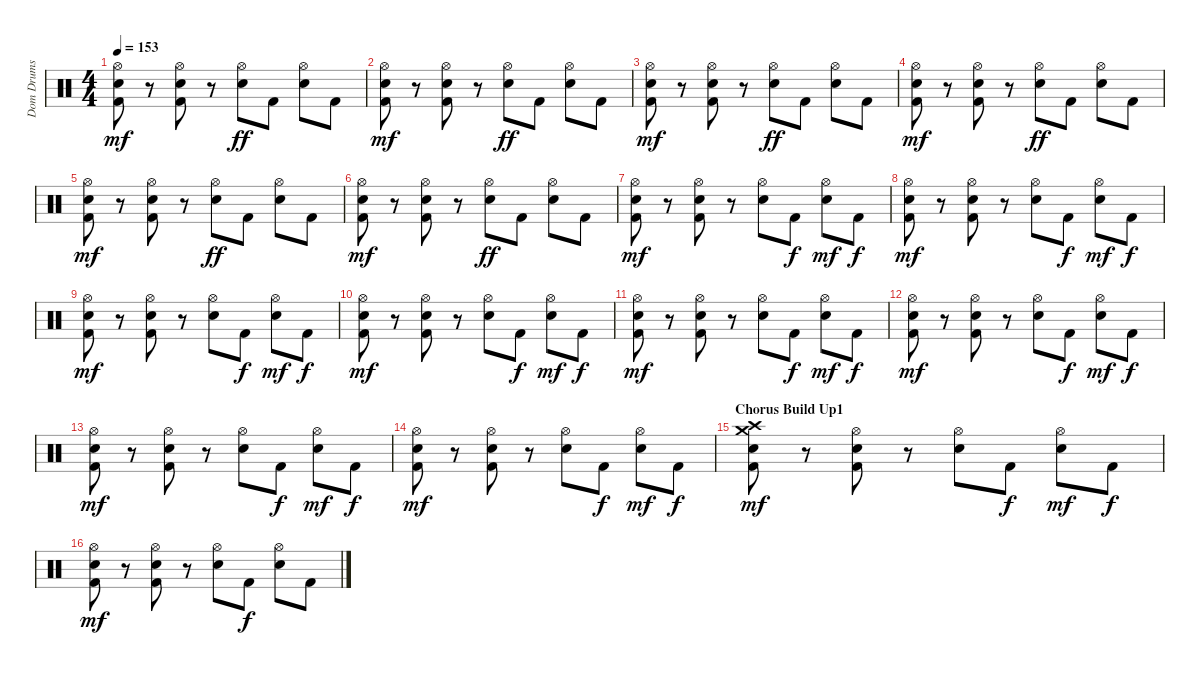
\track ("Dom Drums" "Dom Drums") {instrument percussion}
\staff {score}
\articulation defaults
\ts (4 4)
\tempo 153
\clef neutral
\ks c
("Hi-Hat (open)" "Kick (hit) 2" "Snare (hit) 2").8{dy mf} r.8 ("Hi-Hat (open)" "Kick (hit) 2" "Snare (hit) 2").8 r.8 ("Hi-Hat (open)" "Snare (hit) 2").8{dy ff} "Kick (hit) 2".8 ("Hi-Hat (open)" "Snare (hit) 2").8 "Kick (hit) 2".8 |
("Hi-Hat (open)" "Kick (hit) 2" "Snare (hit) 2").8{dy mf} r.8 ("Hi-Hat (open)" "Kick (hit) 2" "Snare (hit) 2").8 r.8 ("Hi-Hat (open)" "Snare (hit) 2").8{dy ff} "Kick (hit) 2".8 ("Hi-Hat (open)" "Snare (hit) 2").8 "Kick (hit) 2".8 |
("Hi-Hat (open)" "Kick (hit) 2" "Snare (hit) 2").8{dy mf} r.8 ("Hi-Hat (open)" "Kick (hit) 2" "Snare (hit) 2").8 r.8 ("Hi-Hat (open)" "Snare (hit) 2").8{dy ff} "Kick (hit) 2".8 ("Hi-Hat (open)" "Snare (hit) 2").8 "Kick (hit) 2".8 |
("Hi-Hat (open)" "Kick (hit) 2" "Snare (hit) 2").8{dy mf} r.8 ("Hi-Hat (open)" "Kick (hit) 2" "Snare (hit) 2").8 r.8 ("Hi-Hat (open)" "Snare (hit) 2").8{dy ff} "Kick (hit) 2".8 ("Hi-Hat (open)" "Snare (hit) 2").8 "Kick (hit) 2".8 |
("Hi-Hat (open)" "Kick (hit) 2" "Snare (hit) 2").8{dy mf} r.8 ("Hi-Hat (open)" "Kick (hit) 2" "Snare (hit) 2").8 r.8 ("Hi-Hat (open)" "Snare (hit) 2").8{dy ff} "Kick (hit) 2".8 ("Hi-Hat (open)" "Snare (hit) 2").8 "Kick (hit) 2".8 |
("Hi-Hat (open)" "Kick (hit) 2" "Snare (hit) 2").8{dy mf} r.8 ("Hi-Hat (open)" "Kick (hit) 2" "Snare (hit) 2").8 r.8 ("Hi-Hat (open)" "Snare (hit) 2").8{dy ff} "Kick (hit) 2".8 ("Hi-Hat (open)" "Snare (hit) 2").8 "Kick (hit) 2".8 |
("Hi-Hat (open)" "Kick (hit) 2" "Snare (hit) 2").8{dy mf} r.8 ("Hi-Hat (open)" "Kick (hit) 2" "Snare (hit) 2").8 r.8 ("Hi-Hat (open)" "Snare (hit) 2").8 "Kick (hit) 2".8{dy f} ("Hi-Hat (open)" "Snare (hit) 2").8{dy mf} "Kick (hit) 2".8{dy f} |
("Hi-Hat (open)" "Kick (hit) 2" "Snare (hit) 2").8{dy mf} r.8 ("Hi-Hat (open)" "Kick (hit) 2" "Snare (hit) 2").8 r.8 ("Hi-Hat (open)" "Snare (hit) 2").8 "Kick (hit) 2".8{dy f} ("Hi-Hat (open)" "Snare (hit) 2").8{dy mf} "Kick (hit) 2".8{dy f} |
("Hi-Hat (open)" "Kick (hit) 2" "Snare (hit) 2").8{dy mf} r.8 ("Hi-Hat (open)" "Kick (hit) 2" "Snare (hit) 2").8 r.8 ("Hi-Hat (open)" "Snare (hit) 2").8 "Kick (hit) 2".8{dy f} ("Hi-Hat (open)" "Snare (hit) 2").8{dy mf} "Kick (hit) 2".8{dy f} |
("Hi-Hat (open)" "Kick (hit) 2" "Snare (hit) 2").8{dy mf} r.8 ("Hi-Hat (open)" "Kick (hit) 2" "Snare (hit) 2").8 r.8 ("Hi-Hat (open)" "Snare (hit) 2").8 "Kick (hit) 2".8{dy f} ("Hi-Hat (open)" "Snare (hit) 2").8{dy mf} "Kick (hit) 2".8{dy f} |
("Hi-Hat (open)" "Kick (hit) 2" "Snare (hit) 2").8{dy mf} r.8 ("Hi-Hat (open)" "Kick (hit) 2" "Snare (hit) 2").8 r.8 ("Hi-Hat (open)" "Snare (hit) 2").8 "Kick (hit) 2".8{dy f} ("Hi-Hat (open)" "Snare (hit) 2").8{dy mf} "Kick (hit) 2".8{dy f} |
("Hi-Hat (open)" "Kick (hit) 2" "Snare (hit) 2").8{dy mf} r.8 ("Hi-Hat (open)" "Kick (hit) 2" "Snare (hit) 2").8 r.8 ("Hi-Hat (open)" "Snare (hit) 2").8 "Kick (hit) 2".8{dy f} ("Hi-Hat (open)" "Snare (hit) 2").8{dy mf} "Kick (hit) 2".8{dy f} |
("Hi-Hat (open)" "Kick (hit) 2" "Snare (hit) 2").8{dy mf} r.8 ("Hi-Hat (open)" "Kick (hit) 2" "Snare (hit) 2").8 r.8 ("Hi-Hat (open)" "Snare (hit) 2").8 "Kick (hit) 2".8{dy f} ("Hi-Hat (open)" "Snare (hit) 2").8{dy mf} "Kick (hit) 2".8{dy f} |
("Hi-Hat (open)" "Kick (hit) 2" "Snare (hit) 2").8{dy mf} r.8 ("Hi-Hat (open)" "Kick (hit) 2" "Snare (hit) 2").8 r.8 ("Hi-Hat (open)" "Snare (hit) 2").8 "Kick (hit) 2".8{dy f} ("Hi-Hat (open)" "Snare (hit) 2").8{dy mf} "Kick (hit) 2".8{dy f} |
\section ("" "Chorus Build Up1")
("Crash medium (hit)" "Crash high (hit)" "Kick (hit) 2" "Snare (hit) 2").8{dy mf} r.8 ("Hi-Hat (open)" "Kick (hit) 2" "Snare (hit) 2").8 r.8 ("Hi-Hat (open)" "Snare (hit) 2").8 "Kick (hit) 2".8{dy f} ("Hi-Hat (open)" "Snare (hit) 2").8{dy mf} "Kick (hit) 2".8{dy f} |
("Hi-Hat (open)" "Kick (hit) 2" "Snare (hit) 2").8{dy mf} r.8 ("Hi-Hat (open)" "Kick (hit) 2" "Snare (hit) 2").8 r.8 ("Hi-Hat (open)" "Snare (hit) 2").8 "Kick (hit) 2".8{dy f} ("Hi-Hat (open)" "Snare (hit) 2").8 "Kick (hit) 2".8
